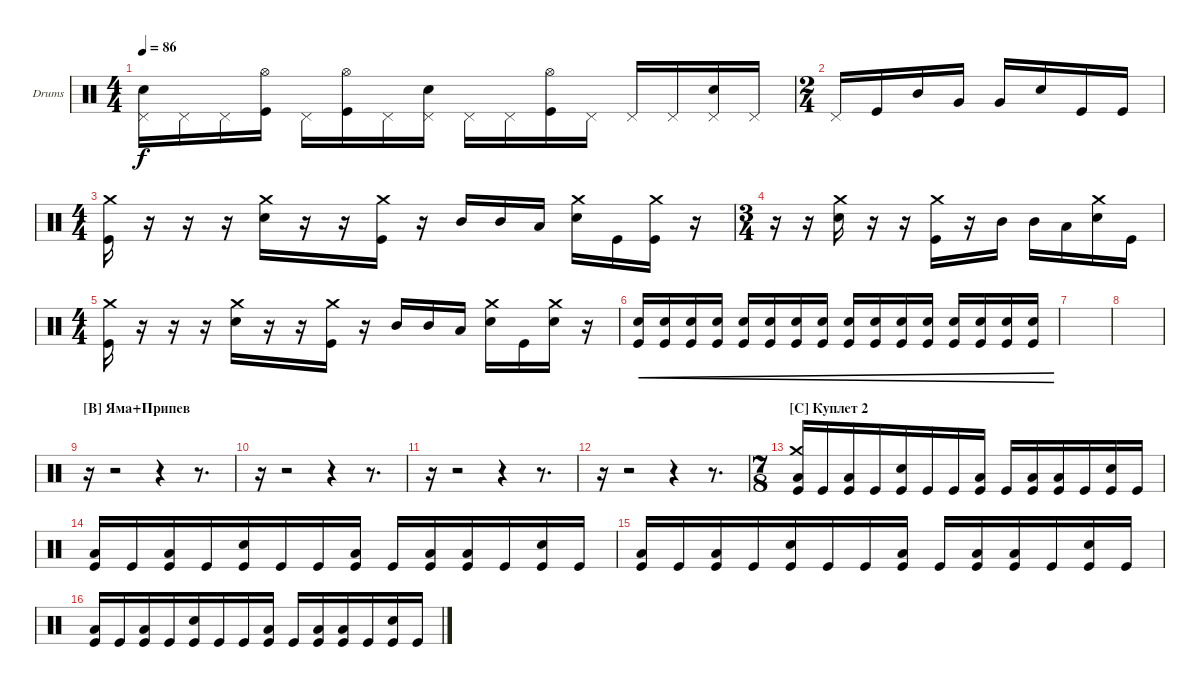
\bracketExtendMode groupsimilarinstruments
\firstSystemTrackNameOrientation horizontal
\otherSystemsTrackNameOrientation horizontal
\track ("Drumkit" "Drums") {instrument percussion}
\staff {score}
\articulation defaults
\ts (4 4)
\tempo 86
\clef neutral
\ks c
("Pedal Hi-Hat (hit)" "Snare (hit) 2").16{dy f} "Pedal Hi-Hat (hit)".16 "Pedal Hi-Hat (hit)".16 ("Hi-Hat (open)" "Kick (hit)").16 "Pedal Hi-Hat (hit)".16 ("Hi-Hat (open)" "Kick (hit)").16 "Pedal Hi-Hat (hit)".16 ("Pedal Hi-Hat (hit)" "Snare (hit) 2").16 "Pedal Hi-Hat (hit)".16 "Pedal Hi-Hat (hit)".16 ("Hi-Hat (open)" "Kick (hit)").16 "Pedal Hi-Hat (hit)".16 "Pedal Hi-Hat (hit)".16 "Pedal Hi-Hat (hit)".16 ("Pedal Hi-Hat (hit)" "Snare (hit) 2").16 "Pedal Hi-Hat (hit)".16 |
\ts (2 4)
"Pedal Hi-Hat (hit)".16 "Kick (hit)".16 "Mid Tom (hit)".16 "Very Low Tom (hit)".16 "Very Low Tom (hit)".16 "Snare (hit) 2".16 "Kick (hit)".16 "Kick (hit)".16 |
\ts (4 4)
("Crash medium (hit)" "Kick (hit)").16 r.16 r.16 r.16 ("Crash medium (hit)" "Snare (hit) 2").16 r.16 r.16 ("Kick (hit)" "Crash medium (hit)").16 r.16 "Mid Tom (hit)".16 "Mid Tom (hit)".16 "Low Tom (hit)".16 ("Crash medium (hit)" "Snare (hit) 2").16 "Kick (hit)".16 ("Kick (hit)" "Crash medium (hit)").16 r.16 |
\ts (3 4)
r.16 r.16 ("Snare (hit) 2" "Crash medium (hit)").16 r.16 r.16 ("Kick (hit)" "Crash medium (hit)").16 r.16 "Mid Tom (hit)".16 "Mid Tom (hit)".16 "Low Tom (hit)".16 ("Snare (hit) 2" "Crash medium (hit)").16 "Kick (hit)".16 |
\ts (4 4)
("Kick (hit)" "Crash medium (hit)").16 r.16 r.16 r.16 ("Snare (hit) 2" "Crash medium (hit)").16 r.16 r.16 ("Kick (hit)" "Crash medium (hit)").16 r.16 "Mid Tom (hit)".16 "Mid Tom (hit)".16 "Low Tom (hit)".16 ("Snare (hit) 2" "Crash medium (hit)").16 "Kick (hit)".16 ("Snare (hit) 2" "Crash medium (hit)").16 r.16 |
("Kick (hit)" "Snare (hit) 2").16{cre} ("Kick (hit)" "Snare (hit) 2").16{cre} ("Kick (hit)" "Snare (hit) 2").16{cre} ("Kick (hit)" "Snare (hit) 2").16{cre} ("Kick (hit)" "Snare (hit) 2").16{cre} ("Kick (hit)" "Snare (hit) 2").16{cre} ("Kick (hit)" "Snare (hit) 2").16{cre} ("Kick (hit)" "Snare (hit) 2").16{cre} ("Snare (hit) 2" "Kick (hit)").16{cre} ("Snare (hit) 2" "Kick (hit)").16{cre} ("Snare (hit) 2" "Kick (hit)").16{cre} ("Snare (hit) 2" "Kick (hit)").16{cre} ("Snare (hit) 2" "Kick (hit)").16{cre} ("Snare (hit) 2" "Kick (hit)").16{cre} ("Snare (hit) 2" "Kick (hit)").16{cre} ("Snare (hit) 2" "Kick (hit)").16{cre} |
|
|
\section ("B" "Яма+Припев")
r.16 r.2 r.4 r.8{d} |
r.16 r.2 r.4 r.8{d} |
r.16 r.2 r.4 r.8{d} |
r.16 r.2 r.4 r.8{d} |
\ts (7 8)
\section ("C" "Куплет 2")
("Crash medium (hit)" "Kick (hit)" "Low Tom (hit)").16 "Kick (hit)".16 ("Kick (hit)" "Low Tom (hit)").16 "Kick (hit)".16 ("Snare (hit) 2" "Kick (hit)").16 "Kick (hit)".16 "Kick (hit)".16 ("Low Tom (hit)" "Kick (hit)").16 "Kick (hit)".16 ("Kick (hit)" "Low Tom (hit)").16 ("Kick (hit)" "Low Tom (hit)").16 "Kick (hit)".16 ("Snare (hit) 2" "Kick (hit)").16 "Kick (hit)".16 |
("Low Tom (hit)" "Kick (hit)").16 "Kick (hit)".16 ("Kick (hit)" "Low Tom (hit)").16 "Kick (hit)".16 ("Snare (hit) 2" "Kick (hit)").16 "Kick (hit)".16 "Kick (hit)".16 ("Low Tom (hit)" "Kick (hit)").16 "Kick (hit)".16 ("Kick (hit)" "Low Tom (hit)").16 ("Kick (hit)" "Low Tom (hit)").16 "Kick (hit)".16 ("Snare (hit) 2" "Kick (hit)").16 "Kick (hit)".16 |
("Low Tom (hit)" "Kick (hit)").16 "Kick (hit)".16 ("Kick (hit)" "Low Tom (hit)").16 "Kick (hit)".16 ("Snare (hit) 2" "Kick (hit)").16 "Kick (hit)".16 "Kick (hit)".16 ("Low Tom (hit)" "Kick (hit)").16 "Kick (hit)".16 ("Kick (hit)" "Low Tom (hit)").16 ("Kick (hit)" "Low Tom (hit)").16 "Kick (hit)".16 ("Snare (hit) 2" "Kick (hit)").16 "Kick (hit)".16 |
("Low Tom (hit)" "Kick (hit)").16 "Kick (hit)".16 ("Kick (hit)" "Low Tom (hit)").16 "Kick (hit)".16 ("Snare (hit) 2" "Kick (hit)").16 "Kick (hit)".16 "Kick (hit)".16 ("Low Tom (hit)" "Kick (hit)").16 "Kick (hit)".16 ("Kick (hit)" "Low Tom (hit)").16 ("Kick (hit)" "Low Tom (hit)").16 "Kick (hit)".16 ("Snare (hit) 2" "Kick (hit)").16 "Kick (hit)".16
